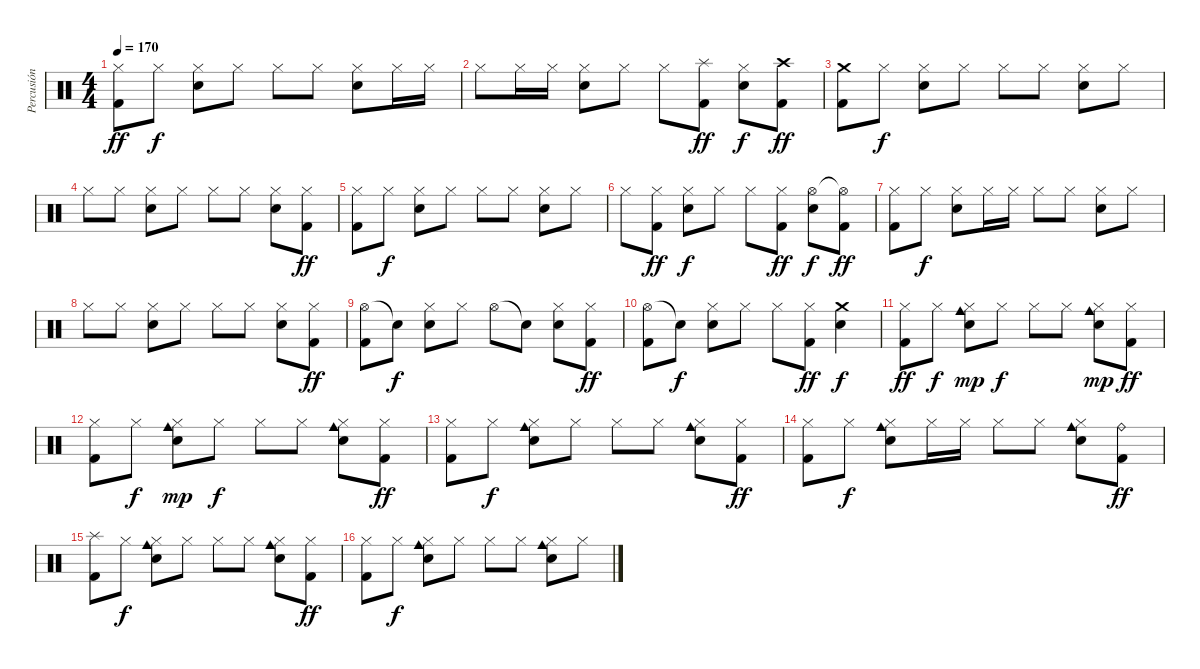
\track ("Percusión" "Percusión") {instrument percussion}
\staff {score}
\articulation defaults
\ts (4 4)
\tempo 170
\clef neutral
\ks c
("Hi-Hat (closed)" "Kick (hit) 2").8{dy ff} "Hi-Hat (closed)".8{dy f} ("Hi-Hat (closed)" "Snare (hit) 2").8 "Hi-Hat (closed)".8 "Hi-Hat (closed)".8 "Hi-Hat (closed)".8 ("Hi-Hat (closed)" "Snare (hit) 2").8 "Hi-Hat (closed)".16 "Hi-Hat (closed)".16 |
"Hi-Hat (closed)".8 "Hi-Hat (closed)".16 "Hi-Hat (closed)".16 ("Hi-Hat (closed)" "Snare (hit) 2").8 "Hi-Hat (closed)".8 "Hi-Hat (closed)".8 ("Splash (hit)" "Kick (hit) 2").8{dy ff} ("Hi-Hat (closed)" "Snare (hit) 2").8{dy f} ("Crash high (hit)" "Kick (hit) 2").8{dy ff} |
("Crash medium (hit)" "Kick (hit) 2").8 "Hi-Hat (closed)".8{dy f} ("Hi-Hat (closed)" "Snare (hit) 2").8 "Hi-Hat (closed)".8 "Hi-Hat (closed)".8 "Hi-Hat (closed)".8 ("Hi-Hat (closed)" "Snare (hit) 2").8 "Hi-Hat (closed)".8 |
"Hi-Hat (closed)".8 "Hi-Hat (closed)".8 ("Hi-Hat (closed)" "Snare (hit) 2").8 "Hi-Hat (closed)".8 "Hi-Hat (closed)".8 "Hi-Hat (closed)".8 ("Hi-Hat (closed)" "Snare (hit) 2").8 ("Hi-Hat (closed)" "Kick (hit) 2").8{dy ff} |
("Hi-Hat (closed)" "Kick (hit) 2").8 "Hi-Hat (closed)".8{dy f} ("Hi-Hat (closed)" "Snare (hit) 2").8 "Hi-Hat (closed)".8 "Hi-Hat (closed)".8 "Hi-Hat (closed)".8 ("Hi-Hat (closed)" "Snare (hit) 2").8 "Hi-Hat (closed)".8 |
"Hi-Hat (closed)".8 ("Hi-Hat (closed)" "Kick (hit) 2").8{dy ff} ("Hi-Hat (closed)" "Snare (hit) 2").8{dy f} "Hi-Hat (closed)".8 "Hi-Hat (closed)".8 ("Hi-Hat (closed)" "Kick (hit) 2").8{dy ff} ("Hi-Hat (open)" "Snare (hit) 2").8{dy f} ("Hi-Hat (open)"{t} "Kick (hit) 2").8{dy ff} |
("Hi-Hat (closed)" "Kick (hit) 2").8 "Hi-Hat (closed)".8{dy f} ("Hi-Hat (closed)" "Snare (hit) 2").8 "Hi-Hat (closed)".16 "Hi-Hat (closed)".16 "Hi-Hat (closed)".8 "Hi-Hat (closed)".8 ("Hi-Hat (closed)" "Snare (hit) 2").8 "Hi-Hat (closed)".8 |
"Hi-Hat (closed)".8 "Hi-Hat (closed)".8 ("Hi-Hat (closed)" "Snare (hit) 2").8 "Hi-Hat (closed)".8 "Hi-Hat (closed)".8 "Hi-Hat (closed)".8 ("Hi-Hat (closed)" "Snare (hit) 2").8 ("Hi-Hat (closed)" "Kick (hit) 2").8{dy ff} |
("Hi-Hat (open)" "Kick (hit) 2").8 "Snare (hit)"{t}.8{dy f} ("Hi-Hat (closed)" "Snare (hit) 2").8 "Hi-Hat (closed)".8 "Hi-Hat (open)".8 "Snare (hit)"{t}.8 ("Hi-Hat (closed)" "Snare (hit) 2").8 ("Hi-Hat (closed)" "Kick (hit) 2").8{dy ff} |
("Hi-Hat (open)" "Kick (hit) 2").8 "Snare (hit)"{t}.8{dy f} ("Hi-Hat (closed)" "Snare (hit) 2").8 "Hi-Hat (closed)".8 "Hi-Hat (closed)".8 ("Hi-Hat (closed)" "Kick (hit) 2").8{dy ff} ("Crash medium (hit)" "Electric Snare (hit)").4{dy f} |
("Hi-Hat (closed)" "Kick (hit) 2").8{dy ff} "Hi-Hat (closed)".8{dy f} ("Hi-Hat (closed)" "Cowbell medium (hit)" "Snare (hit) 2").8{dy mp} "Hi-Hat (closed)".8{dy f} "Hi-Hat (closed)".8 "Hi-Hat (closed)".8 ("Hi-Hat (closed)" "Cowbell medium (hit)" "Snare (hit) 2").8{dy mp} ("Hi-Hat (closed)" "Kick (hit) 2").8{dy ff} |
("Hi-Hat (closed)" "Kick (hit) 2").8 "Hi-Hat (closed)".8{dy f} ("Hi-Hat (closed)" "Cowbell medium (hit)" "Snare (hit) 2").8{dy mp} "Hi-Hat (closed)".8{dy f} "Hi-Hat (closed)".8 "Hi-Hat (closed)".8 ("Hi-Hat (closed)" "Cowbell medium (hit)" "Snare (hit) 2").8 ("Hi-Hat (closed)" "Kick (hit) 2").8{dy ff} |
("Hi-Hat (closed)" "Kick (hit) 2").8 "Hi-Hat (closed)".8{dy f} ("Hi-Hat (closed)" "Cowbell medium (hit)" "Snare (hit) 2").8 "Hi-Hat (closed)".8 "Hi-Hat (closed)".8 "Hi-Hat (closed)".8 ("Hi-Hat (closed)" "Cowbell medium (hit)" "Snare (hit) 2").8 ("Hi-Hat (closed)" "Kick (hit) 2").8{dy ff} |
("Hi-Hat (closed)" "Kick (hit) 2").8 "Hi-Hat (closed)".8{dy f} ("Hi-Hat (closed)" "Cowbell medium (hit)" "Snare (hit) 2").8 "Hi-Hat (closed)".16 "Hi-Hat (closed)".16 "Hi-Hat (closed)".8 "Hi-Hat (closed)".8 ("Hi-Hat (closed)" "Cowbell medium (hit)" "Snare (hit) 2").8 ("Ride (bell)" "Kick (hit) 2").8{dy ff} |
("Splash (hit)" "Kick (hit) 2").8 "Hi-Hat (closed)".8{dy f} ("Hi-Hat (closed)" "Cowbell medium (hit)" "Snare (hit) 2").8 "Hi-Hat (closed)".8 "Hi-Hat (closed)".8 "Hi-Hat (closed)".8 ("Hi-Hat (closed)" "Cowbell medium (hit)" "Snare (hit) 2").8 ("Hi-Hat (closed)" "Kick (hit) 2").8{dy ff} |
("Hi-Hat (closed)" "Kick (hit) 2").8 "Hi-Hat (closed)".8{dy f} ("Hi-Hat (closed)" "Cowbell medium (hit)" "Snare (hit) 2").8 "Hi-Hat (closed)".8 "Hi-Hat (closed)".8 "Hi-Hat (closed)".8 ("Hi-Hat (closed)" "Cowbell medium (hit)" "Snare (hit) 2").8 "Hi-Hat (closed)".8
